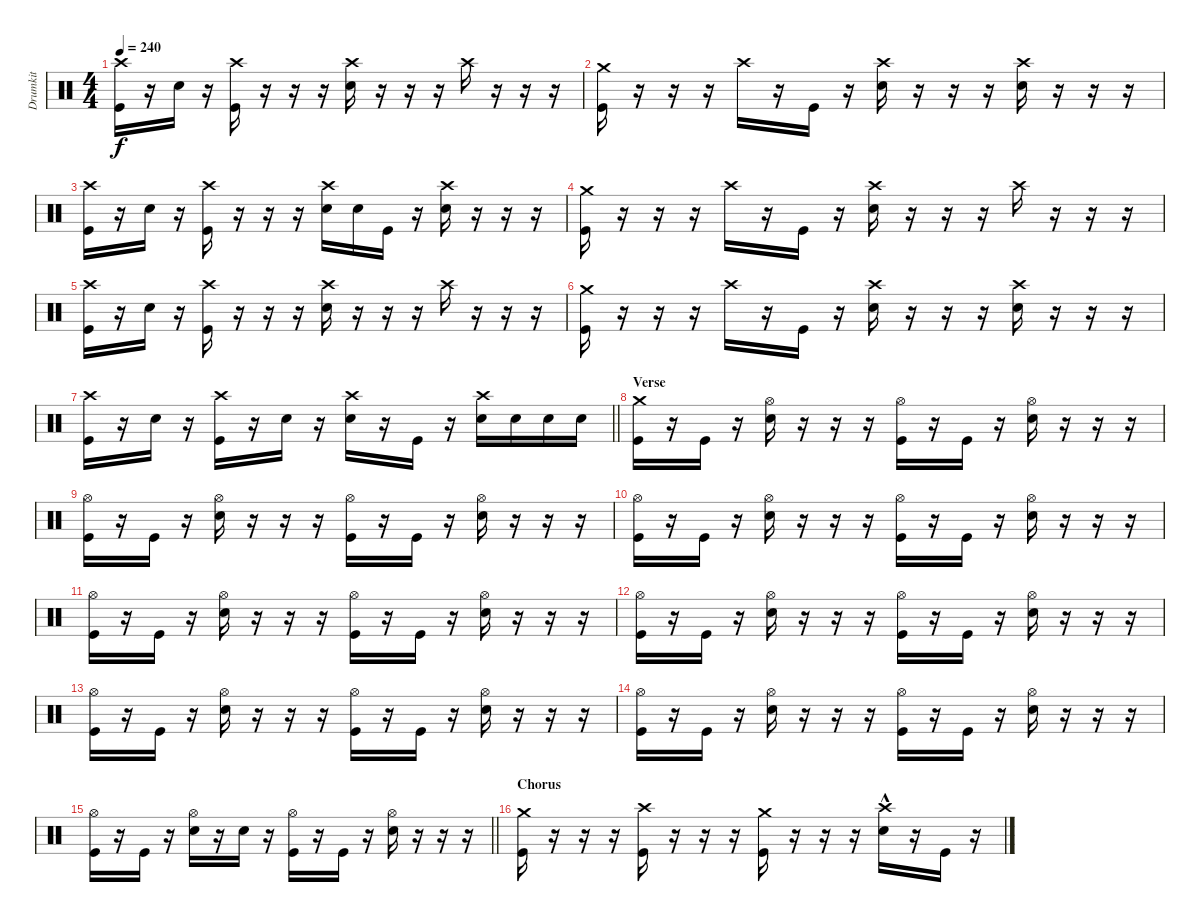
\track ("Drumkit" "Drumkit") {instrument percussion}
\staff {score}
\articulation defaults
\ts (4 4)
\tempo 240
\clef neutral
\ks c
("Crash high (hit)" "Kick (hit)").16{dy f} r.16 "Snare (hit) 2".16 r.16 ("Crash high (hit)" "Kick (hit)").16 r.16 r.16 r.16 ("Crash high (hit)" "Snare (hit) 2").16 r.16 r.16 r.16 "Crash high (hit)".16 r.16 r.16 r.16 |
("Crash medium (hit)" "Kick (hit)").16 r.16 r.16 r.16 "Crash high (hit)".16 r.16 "Kick (hit)".16 r.16 ("Crash high (hit)" "Snare (hit) 2").16 r.16 r.16 r.16 ("Crash high (hit)" "Snare (hit) 2").16 r.16 r.16 r.16 |
("Crash high (hit)" "Kick (hit)").16 r.16 "Snare (hit) 2".16 r.16 ("Crash high (hit)" "Kick (hit)").16 r.16 r.16 r.16 ("Crash high (hit)" "Snare (hit) 2").16 "Snare (hit) 2".16 "Kick (hit)".16 r.16 ("Crash high (hit)" "Snare (hit) 2").16 r.16 r.16 r.16 |
("Crash medium (hit)" "Kick (hit)").16 r.16 r.16 r.16 "Crash high (hit)".16 r.16 "Kick (hit)".16 r.16 ("Crash high (hit)" "Snare (hit) 2").16 r.16 r.16 r.16 "Crash high (hit)".16 r.16 r.16 r.16 |
("Crash high (hit)" "Kick (hit)").16 r.16 "Snare (hit) 2".16 r.16 ("Crash high (hit)" "Kick (hit)").16 r.16 r.16 r.16 ("Crash high (hit)" "Snare (hit) 2").16 r.16 r.16 r.16 "Crash high (hit)".16 r.16 r.16 r.16 |
("Crash medium (hit)" "Kick (hit)").16 r.16 r.16 r.16 "Crash high (hit)".16 r.16 "Kick (hit)".16 r.16 ("Crash high (hit)" "Snare (hit) 2").16 r.16 r.16 r.16 ("Crash high (hit)" "Snare (hit) 2").16 r.16 r.16 r.16 |
\barLineRight lightlight
("Crash high (hit)" "Kick (hit)").16 r.16 "Snare (hit) 2".16 r.16 ("Crash high (hit)" "Kick (hit)").16 r.16 "Snare (hit) 2".16 r.16 ("Crash high (hit)" "Snare (hit) 2").16 r.16 "Kick (hit)".16 r.16 ("Crash high (hit)" "Snare (hit) 2").16 "Snare (hit) 2".16 "Snare (hit) 2".16 "Snare (hit) 2".16 |
\section ("" "Verse")
("Crash medium (hit)" "Kick (hit)").16 r.16 "Kick (hit)".16 r.16 ("Hi-Hat (open)" "Snare (hit) 2").16 r.16 r.16 r.16 ("Hi-Hat (open)" "Kick (hit)").16 r.16 "Kick (hit)".16 r.16 ("Hi-Hat (open)" "Snare (hit) 2").16 r.16 r.16 r.16 |
("Hi-Hat (open)" "Kick (hit)").16 r.16 "Kick (hit)".16 r.16 ("Hi-Hat (open)" "Snare (hit) 2").16 r.16 r.16 r.16 ("Hi-Hat (open)" "Kick (hit)").16 r.16 "Kick (hit)".16 r.16 ("Hi-Hat (open)" "Snare (hit) 2").16 r.16 r.16 r.16 |
("Hi-Hat (open)" "Kick (hit)").16 r.16 "Kick (hit)".16 r.16 ("Hi-Hat (open)" "Snare (hit) 2").16 r.16 r.16 r.16 ("Hi-Hat (open)" "Kick (hit)").16 r.16 "Kick (hit)".16 r.16 ("Hi-Hat (open)" "Snare (hit) 2").16 r.16 r.16 r.16 |
("Hi-Hat (open)" "Kick (hit)").16 r.16 "Kick (hit)".16 r.16 ("Hi-Hat (open)" "Snare (hit) 2").16 r.16 r.16 r.16 ("Hi-Hat (open)" "Kick (hit)").16 r.16 "Kick (hit)".16 r.16 ("Hi-Hat (open)" "Snare (hit) 2").16 r.16 r.16 r.16 |
("Hi-Hat (open)" "Kick (hit)").16 r.16 "Kick (hit)".16 r.16 ("Hi-Hat (open)" "Snare (hit) 2").16 r.16 r.16 r.16 ("Hi-Hat (open)" "Kick (hit)").16 r.16 "Kick (hit)".16 r.16 ("Hi-Hat (open)" "Snare (hit) 2").16 r.16 r.16 r.16 |
("Hi-Hat (open)" "Kick (hit)").16 r.16 "Kick (hit)".16 r.16 ("Hi-Hat (open)" "Snare (hit) 2").16 r.16 r.16 r.16 ("Hi-Hat (open)" "Kick (hit)").16 r.16 "Kick (hit)".16 r.16 ("Hi-Hat (open)" "Snare (hit) 2").16 r.16 r.16 r.16 |
("Hi-Hat (open)" "Kick (hit)").16 r.16 "Kick (hit)".16 r.16 ("Hi-Hat (open)" "Snare (hit) 2").16 r.16 r.16 r.16 ("Hi-Hat (open)" "Kick (hit)").16 r.16 "Kick (hit)".16 r.16 ("Hi-Hat (open)" "Snare (hit) 2").16 r.16 r.16 r.16 |
\barLineRight lightlight
("Hi-Hat (open)" "Kick (hit)").16 r.16 "Kick (hit)".16 r.16 ("Hi-Hat (open)" "Snare (hit) 2").16 r.16 "Snare (hit) 2".16 r.16 ("Hi-Hat (open)" "Kick (hit)").16 r.16 "Kick (hit)".16 r.16 ("Hi-Hat (open)" "Snare (hit) 2").16 r.16 r.16 r.16 |
\section ("" "Chorus")
("Crash medium (hit)" "Kick (hit)").16 r.16 r.16 r.16 ("Crash high (hit)" "Kick (hit)").16 r.16 r.16 r.16 ("Crash medium (hit)" "Kick (hit)").16 r.16 r.16 r.16 ("Crash high (hit)"{hac} "Snare (hit) 2").16 r.16 "Kick (hit)".16 r.16
